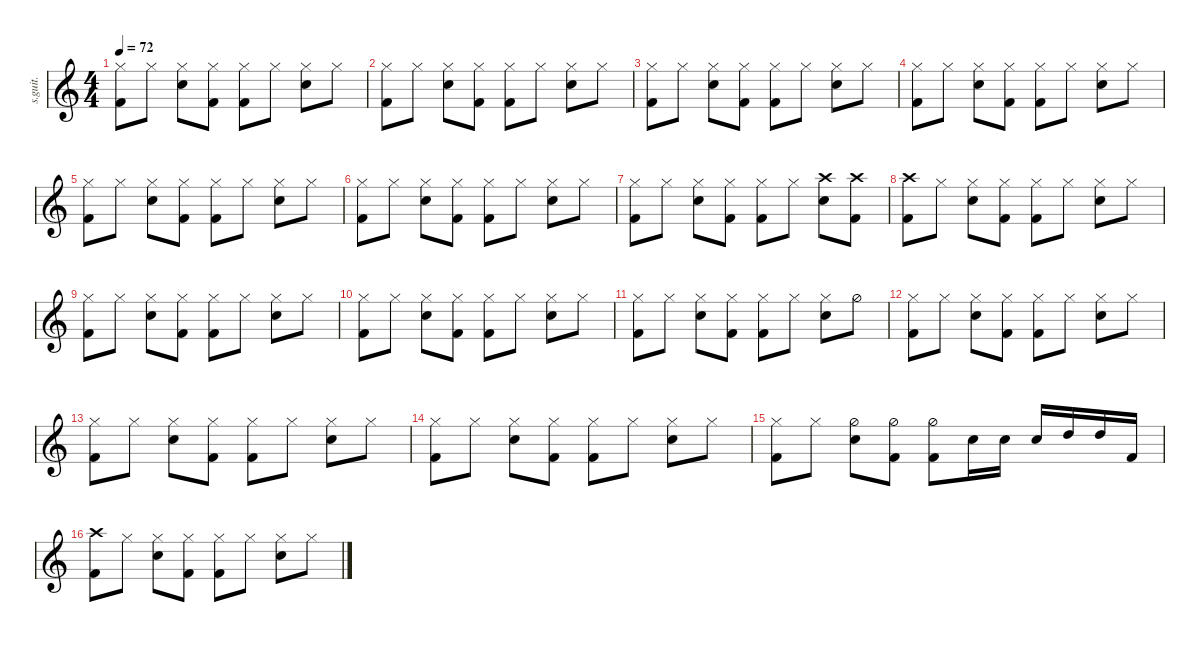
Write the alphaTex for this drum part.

\defaultSystemsLayout 4
\hideDynamics
\bracketExtendMode nobrackets
\track ("Ian Thomas" "s.guit.") {instrument percussion}
\staff {score}
\articulation defaults
\ts (4 4)
\tempo 72
\clef g2
\ks c
("Hi-Hat (closed)" "Kick (hit) 2").8{lyrics (0 "") lyrics (1 "") lyrics (2 "") lyrics (3 "") lyrics (4 "") dy f} "Hi-Hat (closed)".8{lyrics (0 "") lyrics (1 "") lyrics (2 "") lyrics (3 "") lyrics (4 "")} ("Hi-Hat (closed)" "Snare (hit) 2").8{lyrics (0 "") lyrics (1 "") lyrics (2 "") lyrics (3 "") lyrics (4 "")} ("Hi-Hat (closed)" "Kick (hit) 2").8{lyrics (0 "") lyrics (1 "") lyrics (2 "") lyrics (3 "") lyrics (4 "")} ("Hi-Hat (closed)" "Kick (hit) 2").8{lyrics (0 "") lyrics (1 "") lyrics (2 "") lyrics (3 "") lyrics (4 "")} "Hi-Hat (closed)".8{lyrics (0 "") lyrics (1 "") lyrics (2 "") lyrics (3 "") lyrics (4 "")} ("Hi-Hat (closed)" "Snare (hit) 2").8{lyrics (0 "") lyrics (1 "") lyrics (2 "") lyrics (3 "") lyrics (4 "")} "Hi-Hat (closed)".8{lyrics (0 "") lyrics (1 "") lyrics (2 "") lyrics (3 "") lyrics (4 "")} |
("Hi-Hat (closed)" "Kick (hit) 2").8{lyrics (0 "") lyrics (1 "") lyrics (2 "") lyrics (3 "") lyrics (4 "")} "Hi-Hat (closed)".8{lyrics (0 "") lyrics (1 "") lyrics (2 "") lyrics (3 "") lyrics (4 "")} ("Hi-Hat (closed)" "Snare (hit) 2").8{lyrics (0 "") lyrics (1 "") lyrics (2 "") lyrics (3 "") lyrics (4 "")} ("Hi-Hat (closed)" "Kick (hit) 2").8{lyrics (0 "") lyrics (1 "") lyrics (2 "") lyrics (3 "") lyrics (4 "")} ("Hi-Hat (closed)" "Kick (hit) 2").8{lyrics (0 "") lyrics (1 "") lyrics (2 "") lyrics (3 "") lyrics (4 "")} "Hi-Hat (closed)".8{lyrics (0 "") lyrics (1 "") lyrics (2 "") lyrics (3 "") lyrics (4 "")} ("Hi-Hat (closed)" "Snare (hit) 2").8{lyrics (0 "") lyrics (1 "") lyrics (2 "") lyrics (3 "") lyrics (4 "")} "Hi-Hat (closed)".8{lyrics (0 "") lyrics (1 "") lyrics (2 "") lyrics (3 "") lyrics (4 "")} |
("Hi-Hat (closed)" "Kick (hit) 2").8{lyrics (0 "") lyrics (1 "") lyrics (2 "") lyrics (3 "") lyrics (4 "")} "Hi-Hat (closed)".8{lyrics (0 "") lyrics (1 "") lyrics (2 "") lyrics (3 "") lyrics (4 "")} ("Hi-Hat (closed)" "Snare (hit) 2").8{lyrics (0 "") lyrics (1 "") lyrics (2 "") lyrics (3 "") lyrics (4 "")} ("Hi-Hat (closed)" "Kick (hit) 2").8{lyrics (0 "") lyrics (1 "") lyrics (2 "") lyrics (3 "") lyrics (4 "")} ("Hi-Hat (closed)" "Kick (hit) 2").8{lyrics (0 "") lyrics (1 "") lyrics (2 "") lyrics (3 "") lyrics (4 "")} "Hi-Hat (closed)".8{lyrics (0 "") lyrics (1 "") lyrics (2 "") lyrics (3 "") lyrics (4 "")} ("Hi-Hat (closed)" "Snare (hit) 2").8{lyrics (0 "") lyrics (1 "") lyrics (2 "") lyrics (3 "") lyrics (4 "")} "Hi-Hat (closed)".8{lyrics (0 "") lyrics (1 "") lyrics (2 "") lyrics (3 "") lyrics (4 "")} |
("Hi-Hat (closed)" "Kick (hit) 2").8{lyrics (0 "") lyrics (1 "") lyrics (2 "") lyrics (3 "") lyrics (4 "")} "Hi-Hat (closed)".8{lyrics (0 "") lyrics (1 "") lyrics (2 "") lyrics (3 "") lyrics (4 "")} ("Hi-Hat (closed)" "Snare (hit) 2").8{lyrics (0 "") lyrics (1 "") lyrics (2 "") lyrics (3 "") lyrics (4 "")} ("Hi-Hat (closed)" "Kick (hit) 2").8{lyrics (0 "") lyrics (1 "") lyrics (2 "") lyrics (3 "") lyrics (4 "")} ("Hi-Hat (closed)" "Kick (hit) 2").8{lyrics (0 "") lyrics (1 "") lyrics (2 "") lyrics (3 "") lyrics (4 "")} "Hi-Hat (closed)".8{lyrics (0 "") lyrics (1 "") lyrics (2 "") lyrics (3 "") lyrics (4 "")} ("Hi-Hat (closed)" "Snare (hit) 2").8{lyrics (0 "") lyrics (1 "") lyrics (2 "") lyrics (3 "") lyrics (4 "")} "Hi-Hat (closed)".8{lyrics (0 "") lyrics (1 "") lyrics (2 "") lyrics (3 "") lyrics (4 "")} |
("Hi-Hat (closed)" "Kick (hit) 2").8{lyrics (0 "") lyrics (1 "") lyrics (2 "") lyrics (3 "") lyrics (4 "")} "Hi-Hat (closed)".8{lyrics (0 "") lyrics (1 "") lyrics (2 "") lyrics (3 "") lyrics (4 "")} ("Hi-Hat (closed)" "Snare (hit) 2").8{lyrics (0 "") lyrics (1 "") lyrics (2 "") lyrics (3 "") lyrics (4 "")} ("Hi-Hat (closed)" "Kick (hit) 2").8{lyrics (0 "") lyrics (1 "") lyrics (2 "") lyrics (3 "") lyrics (4 "")} ("Hi-Hat (closed)" "Kick (hit) 2").8{lyrics (0 "") lyrics (1 "") lyrics (2 "") lyrics (3 "") lyrics (4 "")} "Hi-Hat (closed)".8{lyrics (0 "") lyrics (1 "") lyrics (2 "") lyrics (3 "") lyrics (4 "")} ("Hi-Hat (closed)" "Snare (hit) 2").8{lyrics (0 "") lyrics (1 "") lyrics (2 "") lyrics (3 "") lyrics (4 "")} "Hi-Hat (closed)".8{lyrics (0 "") lyrics (1 "") lyrics (2 "") lyrics (3 "") lyrics (4 "")} |
("Hi-Hat (closed)" "Kick (hit) 2").8{lyrics (0 "") lyrics (1 "") lyrics (2 "") lyrics (3 "") lyrics (4 "")} "Hi-Hat (closed)".8{lyrics (0 "") lyrics (1 "") lyrics (2 "") lyrics (3 "") lyrics (4 "")} ("Hi-Hat (closed)" "Snare (hit) 2").8{lyrics (0 "") lyrics (1 "") lyrics (2 "") lyrics (3 "") lyrics (4 "")} ("Hi-Hat (closed)" "Kick (hit) 2").8{lyrics (0 "") lyrics (1 "") lyrics (2 "") lyrics (3 "") lyrics (4 "")} ("Hi-Hat (closed)" "Kick (hit) 2").8{lyrics (0 "") lyrics (1 "") lyrics (2 "") lyrics (3 "") lyrics (4 "")} "Hi-Hat (closed)".8{lyrics (0 "") lyrics (1 "") lyrics (2 "") lyrics (3 "") lyrics (4 "")} ("Hi-Hat (closed)" "Snare (hit) 2").8{lyrics (0 "") lyrics (1 "") lyrics (2 "") lyrics (3 "") lyrics (4 "")} "Hi-Hat (closed)".8{lyrics (0 "") lyrics (1 "") lyrics (2 "") lyrics (3 "") lyrics (4 "")} |
("Hi-Hat (closed)" "Kick (hit) 2").8{lyrics (0 "") lyrics (1 "") lyrics (2 "") lyrics (3 "") lyrics (4 "")} "Hi-Hat (closed)".8{lyrics (0 "") lyrics (1 "") lyrics (2 "") lyrics (3 "") lyrics (4 "")} ("Hi-Hat (closed)" "Snare (hit) 2").8{lyrics (0 "") lyrics (1 "") lyrics (2 "") lyrics (3 "") lyrics (4 "")} ("Hi-Hat (closed)" "Kick (hit) 2").8{lyrics (0 "") lyrics (1 "") lyrics (2 "") lyrics (3 "") lyrics (4 "")} ("Hi-Hat (closed)" "Kick (hit) 2").8{lyrics (0 "") lyrics (1 "") lyrics (2 "") lyrics (3 "") lyrics (4 "")} "Hi-Hat (closed)".8{lyrics (0 "") lyrics (1 "") lyrics (2 "") lyrics (3 "") lyrics (4 "")} ("Crash high (hit)" "Snare (hit) 2").8{lyrics (0 "") lyrics (1 "") lyrics (2 "") lyrics (3 "") lyrics (4 "")} ("Crash high (hit)" "Kick (hit) 2").8{lyrics (0 "") lyrics (1 "") lyrics (2 "") lyrics (3 "") lyrics (4 "")} |
("Crash high (hit)" "Kick (hit) 2").8{lyrics (0 "") lyrics (1 "") lyrics (2 "") lyrics (3 "") lyrics (4 "")} "Hi-Hat (closed)".8{lyrics (0 "") lyrics (1 "") lyrics (2 "") lyrics (3 "") lyrics (4 "")} ("Hi-Hat (closed)" "Snare (hit) 2").8{lyrics (0 "") lyrics (1 "") lyrics (2 "") lyrics (3 "") lyrics (4 "")} ("Hi-Hat (closed)" "Kick (hit) 2").8{lyrics (0 "") lyrics (1 "") lyrics (2 "") lyrics (3 "") lyrics (4 "")} ("Hi-Hat (closed)" "Kick (hit) 2").8{lyrics (0 "") lyrics (1 "") lyrics (2 "") lyrics (3 "") lyrics (4 "")} "Hi-Hat (closed)".8{lyrics (0 "") lyrics (1 "") lyrics (2 "") lyrics (3 "") lyrics (4 "")} ("Hi-Hat (closed)" "Snare (hit) 2").8{lyrics (0 "") lyrics (1 "") lyrics (2 "") lyrics (3 "") lyrics (4 "")} "Hi-Hat (closed)".8{lyrics (0 "") lyrics (1 "") lyrics (2 "") lyrics (3 "") lyrics (4 "")} |
("Hi-Hat (closed)" "Kick (hit) 2").8{lyrics (0 "") lyrics (1 "") lyrics (2 "") lyrics (3 "") lyrics (4 "")} "Hi-Hat (closed)".8{lyrics (0 "") lyrics (1 "") lyrics (2 "") lyrics (3 "") lyrics (4 "")} ("Hi-Hat (closed)" "Snare (hit) 2").8{lyrics (0 "") lyrics (1 "") lyrics (2 "") lyrics (3 "") lyrics (4 "")} ("Hi-Hat (closed)" "Kick (hit) 2").8{lyrics (0 "") lyrics (1 "") lyrics (2 "") lyrics (3 "") lyrics (4 "")} ("Hi-Hat (closed)" "Kick (hit) 2").8{lyrics (0 "") lyrics (1 "") lyrics (2 "") lyrics (3 "") lyrics (4 "")} "Hi-Hat (closed)".8{lyrics (0 "") lyrics (1 "") lyrics (2 "") lyrics (3 "") lyrics (4 "")} ("Hi-Hat (closed)" "Snare (hit) 2").8{lyrics (0 "") lyrics (1 "") lyrics (2 "") lyrics (3 "") lyrics (4 "")} "Hi-Hat (closed)".8{lyrics (0 "") lyrics (1 "") lyrics (2 "") lyrics (3 "") lyrics (4 "")} |
("Hi-Hat (closed)" "Kick (hit) 2").8{lyrics (0 "") lyrics (1 "") lyrics (2 "") lyrics (3 "") lyrics (4 "")} "Hi-Hat (closed)".8{lyrics (0 "") lyrics (1 "") lyrics (2 "") lyrics (3 "") lyrics (4 "")} ("Hi-Hat (closed)" "Snare (hit) 2").8{lyrics (0 "") lyrics (1 "") lyrics (2 "") lyrics (3 "") lyrics (4 "")} ("Hi-Hat (closed)" "Kick (hit) 2").8{lyrics (0 "") lyrics (1 "") lyrics (2 "") lyrics (3 "") lyrics (4 "")} ("Hi-Hat (closed)" "Kick (hit) 2").8{lyrics (0 "") lyrics (1 "") lyrics (2 "") lyrics (3 "") lyrics (4 "")} "Hi-Hat (closed)".8{lyrics (0 "") lyrics (1 "") lyrics (2 "") lyrics (3 "") lyrics (4 "")} ("Hi-Hat (closed)" "Snare (hit) 2").8{lyrics (0 "") lyrics (1 "") lyrics (2 "") lyrics (3 "") lyrics (4 "")} "Hi-Hat (closed)".8{lyrics (0 "") lyrics (1 "") lyrics (2 "") lyrics (3 "") lyrics (4 "")} |
("Hi-Hat (closed)" "Kick (hit) 2").8{lyrics (0 "") lyrics (1 "") lyrics (2 "") lyrics (3 "") lyrics (4 "")} "Hi-Hat (closed)".8{lyrics (0 "") lyrics (1 "") lyrics (2 "") lyrics (3 "") lyrics (4 "")} ("Hi-Hat (closed)" "Snare (hit) 2").8{lyrics (0 "") lyrics (1 "") lyrics (2 "") lyrics (3 "") lyrics (4 "")} ("Hi-Hat (closed)" "Kick (hit) 2").8{lyrics (0 "") lyrics (1 "") lyrics (2 "") lyrics (3 "") lyrics (4 "")} ("Hi-Hat (closed)" "Kick (hit) 2").8{lyrics (0 "") lyrics (1 "") lyrics (2 "") lyrics (3 "") lyrics (4 "")} "Hi-Hat (closed)".8{lyrics (0 "") lyrics (1 "") lyrics (2 "") lyrics (3 "") lyrics (4 "")} ("Hi-Hat (closed)" "Snare (hit) 2").8{lyrics (0 "") lyrics (1 "") lyrics (2 "") lyrics (3 "") lyrics (4 "")} "Hi-Hat (half)".8{lyrics (0 "") lyrics (1 "") lyrics (2 "") lyrics (3 "") lyrics (4 "")} |
("Hi-Hat (closed)" "Kick (hit) 2").8{lyrics (0 "") lyrics (1 "") lyrics (2 "") lyrics (3 "") lyrics (4 "")} "Hi-Hat (closed)".8{lyrics (0 "") lyrics (1 "") lyrics (2 "") lyrics (3 "") lyrics (4 "")} ("Hi-Hat (closed)" "Snare (hit) 2").8{lyrics (0 "") lyrics (1 "") lyrics (2 "") lyrics (3 "") lyrics (4 "")} ("Hi-Hat (closed)" "Kick (hit) 2").8{lyrics (0 "") lyrics (1 "") lyrics (2 "") lyrics (3 "") lyrics (4 "")} ("Hi-Hat (closed)" "Kick (hit) 2").8{lyrics (0 "") lyrics (1 "") lyrics (2 "") lyrics (3 "") lyrics (4 "")} "Hi-Hat (closed)".8{lyrics (0 "") lyrics (1 "") lyrics (2 "") lyrics (3 "") lyrics (4 "")} ("Hi-Hat (closed)" "Snare (hit) 2").8{lyrics (0 "") lyrics (1 "") lyrics (2 "") lyrics (3 "") lyrics (4 "")} "Hi-Hat (closed)".8{lyrics (0 "") lyrics (1 "") lyrics (2 "") lyrics (3 "") lyrics (4 "")} |
("Hi-Hat (closed)" "Kick (hit) 2").8{lyrics (0 "") lyrics (1 "") lyrics (2 "") lyrics (3 "") lyrics (4 "")} "Hi-Hat (closed)".8{lyrics (0 "") lyrics (1 "") lyrics (2 "") lyrics (3 "") lyrics (4 "")} ("Hi-Hat (closed)" "Snare (hit) 2").8{lyrics (0 "") lyrics (1 "") lyrics (2 "") lyrics (3 "") lyrics (4 "")} ("Hi-Hat (closed)" "Kick (hit) 2").8{lyrics (0 "") lyrics (1 "") lyrics (2 "") lyrics (3 "") lyrics (4 "")} ("Hi-Hat (closed)" "Kick (hit) 2").8{lyrics (0 "") lyrics (1 "") lyrics (2 "") lyrics (3 "") lyrics (4 "")} "Hi-Hat (closed)".8{lyrics (0 "") lyrics (1 "") lyrics (2 "") lyrics (3 "") lyrics (4 "")} ("Hi-Hat (closed)" "Snare (hit) 2").8{lyrics (0 "") lyrics (1 "") lyrics (2 "") lyrics (3 "") lyrics (4 "")} "Hi-Hat (closed)".8{lyrics (0 "") lyrics (1 "") lyrics (2 "") lyrics (3 "") lyrics (4 "")} |
("Hi-Hat (closed)" "Kick (hit) 2").8{lyrics (0 "") lyrics (1 "") lyrics (2 "") lyrics (3 "") lyrics (4 "")} "Hi-Hat (closed)".8{lyrics (0 "") lyrics (1 "") lyrics (2 "") lyrics (3 "") lyrics (4 "")} ("Hi-Hat (closed)" "Snare (hit) 2").8{lyrics (0 "") lyrics (1 "") lyrics (2 "") lyrics (3 "") lyrics (4 "")} ("Hi-Hat (closed)" "Kick (hit) 2").8{lyrics (0 "") lyrics (1 "") lyrics (2 "") lyrics (3 "") lyrics (4 "")} ("Hi-Hat (closed)" "Kick (hit) 2").8{lyrics (0 "") lyrics (1 "") lyrics (2 "") lyrics (3 "") lyrics (4 "")} "Hi-Hat (closed)".8{lyrics (0 "") lyrics (1 "") lyrics (2 "") lyrics (3 "") lyrics (4 "")} ("Hi-Hat (closed)" "Snare (hit) 2").8{lyrics (0 "") lyrics (1 "") lyrics (2 "") lyrics (3 "") lyrics (4 "")} "Hi-Hat (closed)".8{lyrics (0 "") lyrics (1 "") lyrics (2 "") lyrics (3 "") lyrics (4 "")} |
("Hi-Hat (closed)" "Kick (hit) 2").8{lyrics (0 "") lyrics (1 "") lyrics (2 "") lyrics (3 "") lyrics (4 "")} "Hi-Hat (closed)".8{lyrics (0 "") lyrics (1 "") lyrics (2 "") lyrics (3 "") lyrics (4 "")} ("Hi-Hat (half)" "Snare (hit) 2").8{lyrics (0 "") lyrics (1 "") lyrics (2 "") lyrics (3 "") lyrics (4 "")} ("Hi-Hat (half)" "Kick (hit) 2").8{lyrics (0 "") lyrics (1 "") lyrics (2 "") lyrics (3 "") lyrics (4 "")} ("Hi-Hat (half)" "Kick (hit) 2").8{lyrics (0 "") lyrics (1 "") lyrics (2 "") lyrics (3 "") lyrics (4 "")} "Snare (hit) 2".16{lyrics (0 "") lyrics (1 "") lyrics (2 "") lyrics (3 "") lyrics (4 "")} "Snare (hit) 2".16{lyrics (0 "") lyrics (1 "") lyrics (2 "") lyrics (3 "") lyrics (4 "")} "Snare (hit) 2".16{lyrics (0 "") lyrics (1 "") lyrics (2 "") lyrics (3 "") lyrics (4 "")} "High Tom (hit)".16{lyrics (0 "") lyrics (1 "") lyrics (2 "") lyrics (3 "") lyrics (4 "")} "High Tom (hit)".16{lyrics (0 "") lyrics (1 "") lyrics (2 "") lyrics (3 "") lyrics (4 "")} "Kick (hit) 2".16{lyrics (0 "") lyrics (1 "") lyrics (2 "") lyrics (3 "") lyrics (4 "")} |
("Crash high (hit)" "Kick (hit) 2").8{lyrics (0 "") lyrics (1 "") lyrics (2 "") lyrics (3 "") lyrics (4 "")} "Hi-Hat (closed)".8{lyrics (0 "") lyrics (1 "") lyrics (2 "") lyrics (3 "") lyrics (4 "")} ("Hi-Hat (closed)" "Snare (hit) 2").8{lyrics (0 "") lyrics (1 "") lyrics (2 "") lyrics (3 "") lyrics (4 "")} ("Hi-Hat (closed)" "Kick (hit) 2").8{lyrics (0 "") lyrics (1 "") lyrics (2 "") lyrics (3 "") lyrics (4 "")} ("Hi-Hat (closed)" "Kick (hit) 2").8{lyrics (0 "") lyrics (1 "") lyrics (2 "") lyrics (3 "") lyrics (4 "")} "Hi-Hat (closed)".8{lyrics (0 "") lyrics (1 "") lyrics (2 "") lyrics (3 "") lyrics (4 "")} ("Hi-Hat (closed)" "Snare (hit) 2").8{lyrics (0 "") lyrics (1 "") lyrics (2 "") lyrics (3 "") lyrics (4 "")} "Hi-Hat (closed)".8{lyrics (0 "") lyrics (1 "") lyrics (2 "") lyrics (3 "") lyrics (4 "")}
